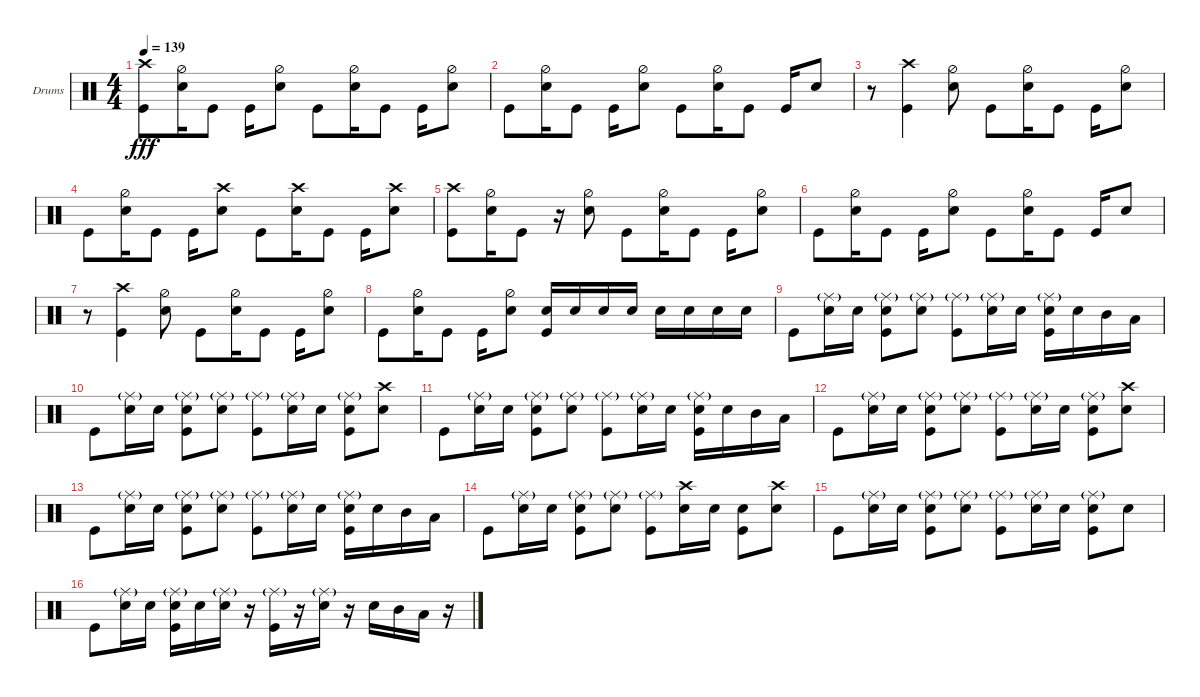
\defaultSystemsLayout 4
\bracketExtendMode groupsimilarinstruments
\firstSystemTrackNameOrientation horizontal
\otherSystemsTrackNameOrientation horizontal
\track ("Drumkit" "Drums") {instrument percussion}
\staff {score}
\articulation defaults
\ts (4 4)
\tempo 139
\clef neutral
\ks c
("Kick (hit)" "Crash high (hit)").8{dy fff} ("Snare (hit) 2" "Hi-Hat (half)").16 "Kick (hit)".8 "Kick (hit)".16 ("Snare (hit) 2" "Hi-Hat (half)").8 "Kick (hit)".8 ("Snare (hit) 2" "Hi-Hat (half)").16 "Kick (hit)".8 "Kick (hit)".16 ("Snare (hit) 2" "Hi-Hat (half)").8 |
"Kick (hit)".8 ("Snare (hit) 2" "Hi-Hat (half)").16 "Kick (hit)".8 "Kick (hit)".16 ("Snare (hit) 2" "Hi-Hat (half)").8 "Kick (hit)".8 ("Snare (hit) 2" "Hi-Hat (half)").16 "Kick (hit)".8 "Kick (hit)".16 "Snare (hit) 2".8 |
r.8 ("Crash high (hit)" "Kick (hit)").4 ("Snare (hit) 2" "Hi-Hat (half)").8 "Kick (hit)".8 ("Snare (hit) 2" "Hi-Hat (half)").16 "Kick (hit)".8 "Kick (hit)".16 ("Snare (hit) 2" "Hi-Hat (half)").8 |
"Kick (hit)".8 ("Snare (hit) 2" "Hi-Hat (half)").16 "Kick (hit)".8 "Kick (hit)".16 ("Snare (hit) 2" "Crash high (hit)").8 "Kick (hit)".8 ("Snare (hit) 2" "Crash high (hit)").16 "Kick (hit)".8 "Kick (hit)".16 ("Snare (hit) 2" "Crash high (hit)").8 |
("Crash high (hit)" "Kick (hit)").8 ("Snare (hit) 2" "Hi-Hat (half)").16 "Kick (hit)".8 r.16 ("Snare (hit) 2" "Hi-Hat (half)").8 "Kick (hit)".8 ("Snare (hit) 2" "Hi-Hat (half)").16 "Kick (hit)".8 "Kick (hit)".16 ("Snare (hit) 2" "Hi-Hat (half)").8 |
"Kick (hit)".8 ("Snare (hit) 2" "Hi-Hat (half)").16 "Kick (hit)".8 "Kick (hit)".16 ("Snare (hit) 2" "Hi-Hat (half)").8 "Kick (hit)".8 ("Snare (hit) 2" "Hi-Hat (half)").16 "Kick (hit)".8 "Kick (hit)".16 "Snare (hit) 2".8 |
\scale
0.3762 r.8 ("Kick (hit)" "Crash high (hit)").4 ("Snare (hit) 2" "Hi-Hat (half)").8 "Kick (hit)".8 ("Snare (hit) 2" "Hi-Hat (half)").16 "Kick (hit)".8 "Kick (hit)".16 ("Snare (hit) 2" "Hi-Hat (half)").8 |
\scale
0.424184 "Kick (hit)".8 ("Snare (hit) 2" "Hi-Hat (half)").16 "Kick (hit)".8 "Kick (hit)".16 ("Snare (hit) 2" "Hi-Hat (half)").8 ("Snare (hit) 2" "Kick (hit)").16 "Snare (hit) 2".16 "Snare (hit) 2".16 "Snare (hit) 2".16 "Snare (hit) 2".16 "Snare (hit) 2".16 "Snare (hit) 2".16 "Snare (hit) 2".16 |
\scale
0.199616 "Kick (hit)".8 ("Snare (hit) 2" "Ride (middle)"{g}).16 "Snare (hit) 2".16 ("Snare (hit) 2" "Kick (hit)" "Ride (middle)"{g}).8 ("Snare (hit) 2" "Ride (middle)"{g}).8 ("Kick (hit)" "Ride (middle)"{g}).8 ("Snare (hit) 2" "Ride (middle)"{g}).16 "Snare (hit) 2".16 ("Snare (hit) 2" "Ride (middle)"{g} "Kick (hit)").16 "Snare (hit) 2".16 "Mid Tom (hit)".16 "Low Tom (hit)".16 |
"Kick (hit)".8 ("Snare (hit) 2" "Ride (middle)"{g}).16 "Snare (hit) 2".16 ("Snare (hit) 2" "Kick (hit)" "Ride (middle)"{g}).8 ("Snare (hit) 2" "Ride (middle)"{g}).8 ("Kick (hit)" "Ride (middle)"{g}).8 ("Snare (hit) 2" "Ride (middle)"{g}).16 "Snare (hit) 2".16 ("Snare (hit) 2" "Kick (hit)" "Ride (middle)"{g}).8 ("Snare (hit) 2" "Crash high (hit)").8 |
"Kick (hit)".8 ("Snare (hit) 2" "Ride (middle)"{g}).16 "Snare (hit) 2".16 ("Snare (hit) 2" "Kick (hit)" "Ride (middle)"{g}).8 ("Snare (hit) 2" "Ride (middle)"{g}).8 ("Kick (hit)" "Ride (middle)"{g}).8 ("Snare (hit) 2" "Ride (middle)"{g}).16 "Snare (hit) 2".16 ("Snare (hit) 2" "Ride (middle)"{g} "Kick (hit)").16 "Snare (hit) 2".16 "Mid Tom (hit)".16 "Low Tom (hit)".16 |
"Kick (hit)".8 ("Snare (hit) 2" "Ride (middle)"{g}).16 "Snare (hit) 2".16 ("Snare (hit) 2" "Kick (hit)" "Ride (middle)"{g}).8 ("Snare (hit) 2" "Ride (middle)"{g}).8 ("Kick (hit)" "Ride (middle)"{g}).8 ("Snare (hit) 2" "Ride (middle)"{g}).16 "Snare (hit) 2".16 ("Snare (hit) 2" "Kick (hit)" "Ride (middle)"{g}).8 ("Snare (hit) 2" "Crash high (hit)").8 |
"Kick (hit)".8 ("Snare (hit) 2" "Ride (middle)"{g}).16 "Snare (hit) 2".16 ("Snare (hit) 2" "Kick (hit)" "Ride (middle)"{g}).8 ("Snare (hit) 2" "Ride (middle)"{g}).8 ("Kick (hit)" "Ride (middle)"{g}).8 ("Snare (hit) 2" "Ride (middle)"{g}).16 "Snare (hit) 2".16 ("Snare (hit) 2" "Ride (middle)"{g} "Kick (hit)").16 "Snare (hit) 2".16 "Mid Tom (hit)".16 "Low Tom (hit)".16 |
"Kick (hit)".8 ("Snare (hit) 2" "Ride (middle)"{g}).16 "Snare (hit) 2".16 ("Snare (hit) 2" "Kick (hit)" "Ride (middle)"{g}).8 ("Snare (hit) 2" "Ride (middle)"{g}).8 ("Kick (hit)" "Ride (middle)"{g}).8 ("Snare (hit) 2" "Crash high (hit)").16 "Snare (hit) 2".16 ("Snare (hit) 2" "Kick (hit)").8 ("Snare (hit) 2" "Crash high (hit)").8 |
"Kick (hit)".8 ("Snare (hit) 2" "Ride (middle)"{g}).16 "Snare (hit) 2".16 ("Snare (hit) 2" "Kick (hit)" "Ride (middle)"{g}).8 ("Snare (hit) 2" "Ride (middle)"{g}).8 ("Kick (hit)" "Ride (middle)"{g}).8 ("Snare (hit) 2" "Ride (middle)"{g}).16 "Snare (hit) 2".16 ("Snare (hit) 2" "Kick (hit)" "Ride (middle)"{g}).8 "Snare (hit) 2".8 |
"Kick (hit)".8 ("Snare (hit) 2" "Ride (middle)"{g}).16 "Snare (hit) 2".16 ("Snare (hit) 2" "Kick (hit)" "Ride (middle)"{g}).16 "Snare (hit) 2".16 ("Snare (hit) 2" "Ride (middle)"{g}).16 r.16 ("Kick (hit)" "Ride (middle)"{g}).16 r.16 ("Snare (hit) 2" "Ride (middle)"{g}).16 r.16 "Snare (hit) 2".16 "Mid Tom (hit)".16 "Low Tom (hit)".16 r.16
